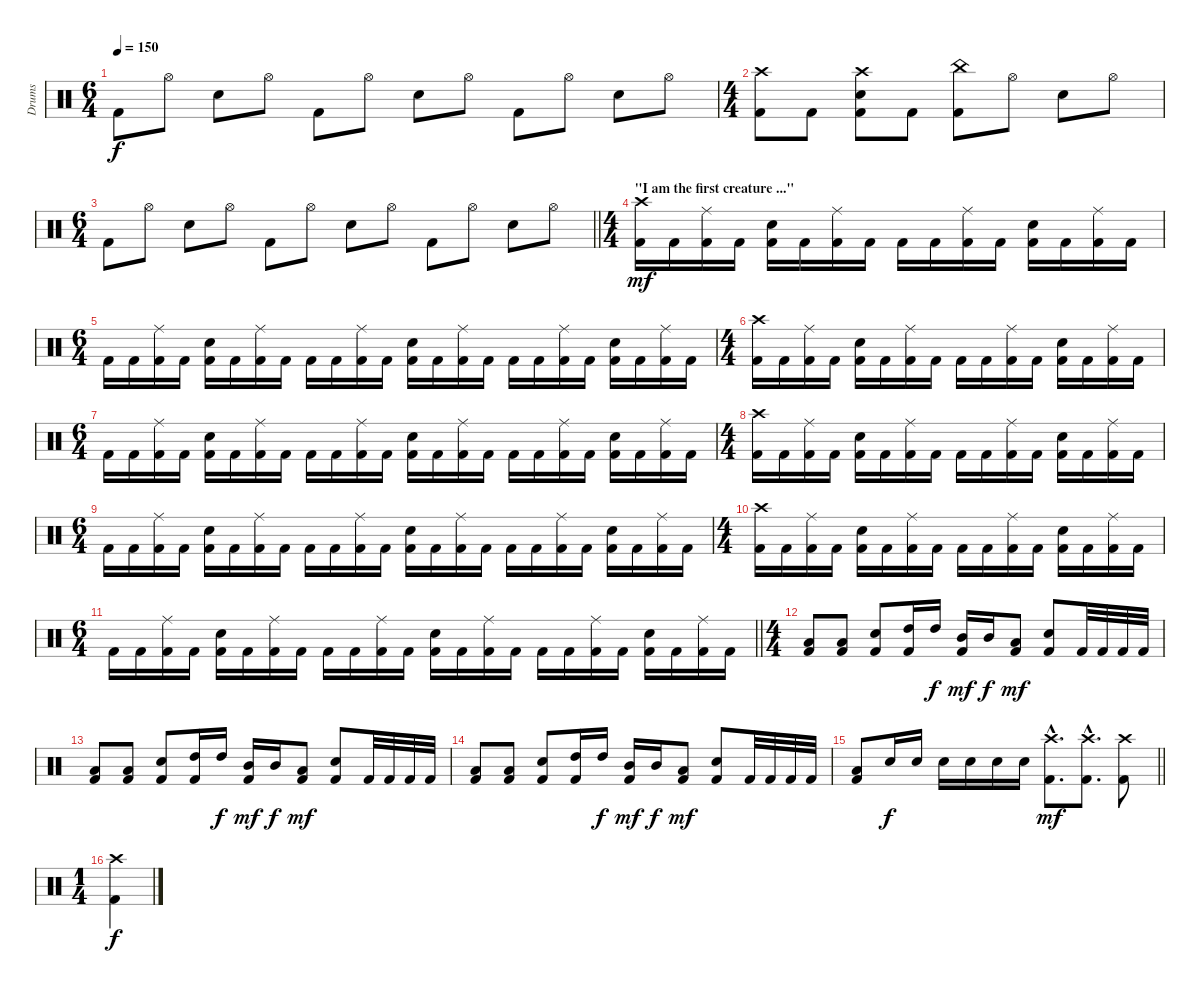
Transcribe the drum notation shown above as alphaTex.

\track ("Drums" "Drums") {instrument percussion}
\staff {score}
\articulation defaults
\ts (6 4)
\tempo 150
\clef neutral
\ks c "Kick (hit) 2".8{dy f} "Hi-Hat (open)".8 "Electric Snare (hit)".8 "Hi-Hat (open)".8 "Kick (hit) 2".8 "Hi-Hat (open)".8 "Electric Snare (hit)".8 "Hi-Hat (open)".8 "Kick (hit) 2".8 "Hi-Hat (open)".8 "Electric Snare (hit)".8 "Hi-Hat (open)".8
|
\ts (4 4)
("Crash high (hit)" "Kick (hit) 2").8 "Kick (hit) 2".8 ("Crash high (hit)" "Electric Snare (hit)" "Kick (hit) 2").8 "Kick (hit) 2".8 ("China (hit)" "Kick (hit) 2").8 "Hi-Hat (open)".8 "Electric Snare (hit)".8 "Hi-Hat (open)".8 |
\ts (6 4)
\barLineRight lightlight "Kick (hit) 2".8 "Hi-Hat (open)".8 "Electric Snare (hit)".8 "Hi-Hat (open)".8 "Kick (hit) 2".8 "Hi-Hat (open)".8 "Electric Snare (hit)".8 "Hi-Hat (open)".8 "Kick (hit) 2".8 "Hi-Hat (open)".8 "Electric Snare (hit)".8 "Hi-Hat (open)".8
|
\ts (4 4)
\section ("" "\"I am the first creature ...\"")
("Crash high (hit)" "Kick (hit) 2").16{dy mf} "Kick (hit) 2".16 ("Ride (middle)" "Kick (hit) 2").16 "Kick (hit) 2".16 ("Electric Snare (hit)" "Kick (hit) 2").16 "Kick (hit) 2".16 ("Ride (middle)" "Kick (hit) 2").16 "Kick (hit) 2".16 "Kick (hit) 2".16 "Kick (hit) 2".16 ("Ride (middle)" "Kick (hit) 2").16 "Kick (hit) 2".16 ("Electric Snare (hit)" "Kick (hit) 2").16 "Kick (hit) 2".16 ("Ride (middle)" "Kick (hit) 2").16 "Kick (hit) 2".16 |
\ts (6 4)
"Kick (hit) 2".16 "Kick (hit) 2".16 ("Ride (middle)" "Kick (hit) 2").16 "Kick (hit) 2".16 ("Electric Snare (hit)" "Kick (hit) 2").16 "Kick (hit) 2".16 ("Ride (middle)" "Kick (hit) 2").16 "Kick (hit) 2".16 "Kick (hit) 2".16 "Kick (hit) 2".16 ("Ride (middle)" "Kick (hit) 2").16 "Kick (hit) 2".16 ("Electric Snare (hit)" "Kick (hit) 2").16 "Kick (hit) 2".16 ("Ride (middle)" "Kick (hit) 2").16 "Kick (hit) 2".16 "Kick (hit) 2".16 "Kick (hit) 2".16 ("Ride (middle)" "Kick (hit) 2").16 "Kick (hit) 2".16 ("Electric Snare (hit)" "Kick (hit) 2").16 "Kick (hit) 2".16 ("Ride (middle)" "Kick (hit) 2").16 "Kick (hit) 2".16 |
\ts (4 4)
("Crash high (hit)" "Kick (hit) 2").16 "Kick (hit) 2".16 ("Ride (middle)" "Kick (hit) 2").16 "Kick (hit) 2".16 ("Electric Snare (hit)" "Kick (hit) 2").16 "Kick (hit) 2".16 ("Ride (middle)" "Kick (hit) 2").16 "Kick (hit) 2".16 "Kick (hit) 2".16 "Kick (hit) 2".16 ("Ride (middle)" "Kick (hit) 2").16 "Kick (hit) 2".16 ("Electric Snare (hit)" "Kick (hit) 2").16 "Kick (hit) 2".16 ("Ride (middle)" "Kick (hit) 2").16 "Kick (hit) 2".16 |
\ts (6 4)
"Kick (hit) 2".16 "Kick (hit) 2".16 ("Ride (middle)" "Kick (hit) 2").16 "Kick (hit) 2".16 ("Electric Snare (hit)" "Kick (hit) 2").16 "Kick (hit) 2".16 ("Ride (middle)" "Kick (hit) 2").16 "Kick (hit) 2".16 "Kick (hit) 2".16 "Kick (hit) 2".16 ("Ride (middle)" "Kick (hit) 2").16 "Kick (hit) 2".16 ("Electric Snare (hit)" "Kick (hit) 2").16 "Kick (hit) 2".16 ("Ride (middle)" "Kick (hit) 2").16 "Kick (hit) 2".16 "Kick (hit) 2".16 "Kick (hit) 2".16 ("Ride (middle)" "Kick (hit) 2").16 "Kick (hit) 2".16 ("Electric Snare (hit)" "Kick (hit) 2").16 "Kick (hit) 2".16 ("Ride (middle)" "Kick (hit) 2").16 "Kick (hit) 2".16 |
\ts (4 4)
("Crash high (hit)" "Kick (hit) 2").16 "Kick (hit) 2".16 ("Ride (middle)" "Kick (hit) 2").16 "Kick (hit) 2".16 ("Electric Snare (hit)" "Kick (hit) 2").16 "Kick (hit) 2".16 ("Ride (middle)" "Kick (hit) 2").16 "Kick (hit) 2".16 "Kick (hit) 2".16 "Kick (hit) 2".16 ("Ride (middle)" "Kick (hit) 2").16 "Kick (hit) 2".16 ("Electric Snare (hit)" "Kick (hit) 2").16 "Kick (hit) 2".16 ("Ride (middle)" "Kick (hit) 2").16 "Kick (hit) 2".16 |
\ts (6 4)
"Kick (hit) 2".16 "Kick (hit) 2".16 ("Ride (middle)" "Kick (hit) 2").16 "Kick (hit) 2".16 ("Electric Snare (hit)" "Kick (hit) 2").16 "Kick (hit) 2".16 ("Ride (middle)" "Kick (hit) 2").16 "Kick (hit) 2".16 "Kick (hit) 2".16 "Kick (hit) 2".16 ("Ride (middle)" "Kick (hit) 2").16 "Kick (hit) 2".16 ("Electric Snare (hit)" "Kick (hit) 2").16 "Kick (hit) 2".16 ("Ride (middle)" "Kick (hit) 2").16 "Kick (hit) 2".16 "Kick (hit) 2".16 "Kick (hit) 2".16 ("Ride (middle)" "Kick (hit) 2").16 "Kick (hit) 2".16 ("Electric Snare (hit)" "Kick (hit) 2").16 "Kick (hit) 2".16 ("Ride (middle)" "Kick (hit) 2").16 "Kick (hit) 2".16 |
\ts (4 4)
("Crash high (hit)" "Kick (hit) 2").16 "Kick (hit) 2".16 ("Ride (middle)" "Kick (hit) 2").16 "Kick (hit) 2".16 ("Electric Snare (hit)" "Kick (hit) 2").16 "Kick (hit) 2".16 ("Ride (middle)" "Kick (hit) 2").16 "Kick (hit) 2".16 "Kick (hit) 2".16 "Kick (hit) 2".16 ("Ride (middle)" "Kick (hit) 2").16 "Kick (hit) 2".16 ("Electric Snare (hit)" "Kick (hit) 2").16 "Kick (hit) 2".16 ("Ride (middle)" "Kick (hit) 2").16 "Kick (hit) 2".16 |
\ts (6 4)
\barLineRight lightlight "Kick (hit) 2".16 "Kick (hit) 2".16
("Ride (middle)" "Kick (hit) 2").16 "Kick (hit) 2".16 ("Electric Snare (hit)" "Kick (hit) 2").16 "Kick (hit) 2".16 ("Ride (middle)" "Kick (hit) 2").16 "Kick (hit) 2".16 "Kick (hit) 2".16 "Kick (hit) 2".16 ("Ride (middle)" "Kick (hit) 2").16 "Kick (hit) 2".16 ("Electric Snare (hit)" "Kick (hit) 2").16 "Kick (hit) 2".16 ("Ride (middle)" "Kick (hit) 2").16 "Kick (hit) 2".16 "Kick (hit) 2".16 "Kick (hit) 2".16 ("Ride (middle)" "Kick (hit) 2").16 "Kick (hit) 2".16 ("Electric Snare (hit)" "Kick (hit) 2").16 "Kick (hit) 2".16 ("Ride (middle)" "Kick (hit) 2").16 "Kick (hit) 2".16 |
\ts (4 4)
\section ("" "")
("Low Tom (hit)" "Kick (hit) 2").8 ("Low Tom (hit)" "Kick (hit) 2").8 ("Electric Snare (hit)" "Kick (hit) 2").8 ("High Tom (hit)" "Kick (hit) 2").16 "High Tom (hit)".16{dy f} ("Mid Tom (hit)" "Kick (hit) 2").16{dy mf} "Mid Tom (hit)".16{dy f} ("Low Tom (hit)" "Kick (hit) 2").8{dy mf} ("Electric Snare (hit)" "Kick (hit) 2").8 "Kick (hit) 2".32 "Kick (hit) 2".32 "Kick (hit) 2".32 "Kick (hit) 2".32 |
("Low Tom (hit)" "Kick (hit) 2").8 ("Low Tom (hit)" "Kick (hit) 2").8 ("Electric Snare (hit)" "Kick (hit) 2").8 ("High Tom (hit)" "Kick (hit) 2").16 "High Tom (hit)".16{dy f} ("Mid Tom (hit)" "Kick (hit) 2").16{dy mf} "Mid Tom (hit)".16{dy f} ("Low Tom (hit)" "Kick (hit) 2").8{dy mf} ("Electric Snare (hit)" "Kick (hit) 2").8 "Kick (hit) 2".32 "Kick (hit) 2".32 "Kick (hit) 2".32 "Kick (hit) 2".32 |
("Low Tom (hit)" "Kick (hit) 2").8 ("Low Tom (hit)" "Kick (hit) 2").8 ("Electric Snare (hit)" "Kick (hit) 2").8 ("High Tom (hit)" "Kick (hit) 2").16 "High Tom (hit)".16{dy f} ("Mid Tom (hit)" "Kick (hit) 2").16{dy mf} "Mid Tom (hit)".16{dy f} ("Low Tom (hit)" "Kick (hit) 2").8{dy mf} ("Electric Snare (hit)" "Kick (hit) 2").8 "Kick (hit) 2".32 "Kick (hit) 2".32 "Kick (hit) 2".32 "Kick (hit) 2".32 |
\barLineRight lightlight
("Low Tom (hit)" "Kick (hit) 2").8 "Electric Snare (hit)".16{dy f} "Electric Snare (hit)".16 "Electric Snare (hit)".16 "Electric Snare (hit)".16 "Electric Snare (hit)".16 "Electric Snare (hit)".16 ("Crash high (hit)"{hac} "Kick (hit) 2"{hac}).8{d dy mf} ("Crash high (hit)"{hac} "Kick (hit) 2"{hac}).8{d} ("Crash high (hit)" "Kick (hit) 2").8 |
\ts (1 4)
\section ("" "")
("Crash high (hit)" "Kick (hit) 2").4{dy f}
